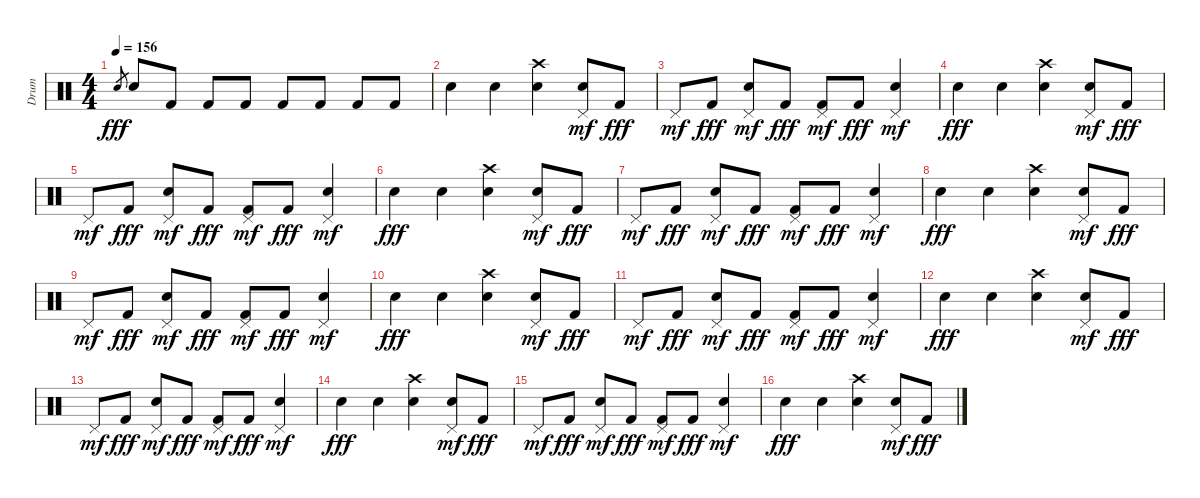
\track ("Drum" "Drum") {instrument percussion}
\staff {score}
\articulation defaults
\ts (4 4)
\tempo 156
\clef neutral
\ks c "Electric Snare (hit)".8{gr dy fff} "Electric Snare (hit)".8 "Kick (hit) 2".8 "Kick (hit) 2".8 "Kick (hit) 2".8 "Kick (hit) 2".8 "Kick (hit) 2".8 "Kick (hit) 2".8 "Kick (hit) 2".8
|
"Electric Snare (hit)".4 "Electric Snare (hit)".4 ("Electric Snare (hit)" "Crash high (hit)").4 ("Electric Snare (hit)" "Pedal Hi-Hat (hit)").8{dy mf} "Kick (hit) 2".8{dy fff} |
"Pedal Hi-Hat (hit)".8{dy mf} "Kick (hit) 2".8{dy fff} ("Electric Snare (hit)" "Pedal Hi-Hat (hit)").8{dy mf} "Kick (hit) 2".8{dy fff} ("Kick (hit) 2" "Pedal Hi-Hat (hit)").8{dy mf} "Kick (hit) 2".8{dy fff} ("Electric Snare (hit)" "Pedal Hi-Hat (hit)").4{dy mf} |
"Electric Snare (hit)".4{dy fff} "Electric Snare (hit)".4 ("Electric Snare (hit)" "Crash high (hit)").4 ("Electric Snare (hit)" "Pedal Hi-Hat (hit)").8{dy mf} "Kick (hit) 2".8{dy fff} |
"Pedal Hi-Hat (hit)".8{dy mf} "Kick (hit) 2".8{dy fff} ("Electric Snare (hit)" "Pedal Hi-Hat (hit)").8{dy mf} "Kick (hit) 2".8{dy fff} ("Kick (hit) 2" "Pedal Hi-Hat (hit)").8{dy mf} "Kick (hit) 2".8{dy fff} ("Electric Snare (hit)" "Pedal Hi-Hat (hit)").4{dy mf} |
"Electric Snare (hit)".4{dy fff} "Electric Snare (hit)".4 ("Electric Snare (hit)" "Crash high (hit)").4 ("Electric Snare (hit)" "Pedal Hi-Hat (hit)").8{dy mf} "Kick (hit) 2".8{dy fff} |
"Pedal Hi-Hat (hit)".8{dy mf} "Kick (hit) 2".8{dy fff} ("Electric Snare (hit)" "Pedal Hi-Hat (hit)").8{dy mf} "Kick (hit) 2".8{dy fff} ("Kick (hit) 2" "Pedal Hi-Hat (hit)").8{dy mf} "Kick (hit) 2".8{dy fff} ("Electric Snare (hit)" "Pedal Hi-Hat (hit)").4{dy mf} |
"Electric Snare (hit)".4{dy fff} "Electric Snare (hit)".4 ("Electric Snare (hit)" "Crash high (hit)").4 ("Electric Snare (hit)" "Pedal Hi-Hat (hit)").8{dy mf} "Kick (hit) 2".8{dy fff} |
"Pedal Hi-Hat (hit)".8{dy mf} "Kick (hit) 2".8{dy fff} ("Electric Snare (hit)" "Pedal Hi-Hat (hit)").8{dy mf} "Kick (hit) 2".8{dy fff} ("Kick (hit) 2" "Pedal Hi-Hat (hit)").8{dy mf} "Kick (hit) 2".8{dy fff} ("Electric Snare (hit)" "Pedal Hi-Hat (hit)").4{dy mf} |
"Electric Snare (hit)".4{dy fff} "Electric Snare (hit)".4 ("Electric Snare (hit)" "Crash high (hit)").4 ("Electric Snare (hit)" "Pedal Hi-Hat (hit)").8{dy mf} "Kick (hit) 2".8{dy fff} |
"Pedal Hi-Hat (hit)".8{dy mf} "Kick (hit) 2".8{dy fff} ("Electric Snare (hit)" "Pedal Hi-Hat (hit)").8{dy mf} "Kick (hit) 2".8{dy fff} ("Kick (hit) 2" "Pedal Hi-Hat (hit)").8{dy mf} "Kick (hit) 2".8{dy fff} ("Electric Snare (hit)" "Pedal Hi-Hat (hit)").4{dy mf} |
"Electric Snare (hit)".4{dy fff} "Electric Snare (hit)".4 ("Electric Snare (hit)" "Crash high (hit)").4 ("Electric Snare (hit)" "Pedal Hi-Hat (hit)").8{dy mf} "Kick (hit) 2".8{dy fff} |
"Pedal Hi-Hat (hit)".8{dy mf} "Kick (hit) 2".8{dy fff} ("Electric Snare (hit)" "Pedal Hi-Hat (hit)").8{dy mf} "Kick (hit) 2".8{dy fff} ("Kick (hit) 2" "Pedal Hi-Hat (hit)").8{dy mf} "Kick (hit) 2".8{dy fff} ("Electric Snare (hit)" "Pedal Hi-Hat (hit)").4{dy mf} |
"Electric Snare (hit)".4{dy fff} "Electric Snare (hit)".4 ("Electric Snare (hit)" "Crash high (hit)").4 ("Electric Snare (hit)" "Pedal Hi-Hat (hit)").8{dy mf} "Kick (hit) 2".8{dy fff} |
"Pedal Hi-Hat (hit)".8{dy mf} "Kick (hit) 2".8{dy fff} ("Electric Snare (hit)" "Pedal Hi-Hat (hit)").8{dy mf} "Kick (hit) 2".8{dy fff} ("Kick (hit) 2" "Pedal Hi-Hat (hit)").8{dy mf} "Kick (hit) 2".8{dy fff} ("Electric Snare (hit)" "Pedal Hi-Hat (hit)").4{dy mf} |
"Electric Snare (hit)".4{dy fff} "Electric Snare (hit)".4 ("Electric Snare (hit)" "Crash high (hit)").4 ("Electric Snare (hit)" "Pedal Hi-Hat (hit)").8{dy mf} "Kick (hit) 2".8{dy fff}
